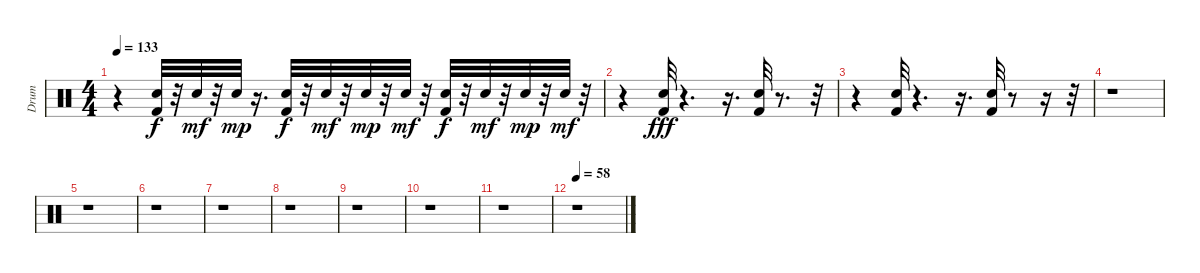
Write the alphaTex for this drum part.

\track ("Drum" "Drum") {instrument percussion}
\staff {score}
\articulation defaults
\ts (4 4)
\tempo 133
\clef neutral
\ks c
r.4{dy fff} ("Kick (hit) 2" "Electric Snare (hit)").32{dy f} r.32 "Electric Snare (hit)".32{dy mf} r.32 "Electric Snare (hit)".32{dy mp} r.16{d} ("Kick (hit) 2" "Electric Snare (hit)").32{dy f} r.32 "Electric Snare (hit)".32{dy mf} r.32 "Electric Snare (hit)".32{dy mp} r.32 "Electric Snare (hit)".32{dy mf} r.32 ("Kick (hit) 2" "Electric Snare (hit)").32{dy f} r.32 "Electric Snare (hit)".32{dy mf} r.32 "Electric Snare (hit)".32{dy mp} r.32 "Electric Snare (hit)".32{dy mf} r.32 |
r.4 ("Electric Snare (hit)" "Kick (hit) 2").32{dy fff} r.4{d} r.16{d} ("Electric Snare (hit)" "Kick (hit) 2").32 r.8{d} r.32 |
r.4 ("Electric Snare (hit)" "Kick (hit) 2").32 r.4{d} r.16{d} ("Electric Snare (hit)" "Kick (hit) 2").32 r.8 r.16 r.32 |
r.1 |
r.1 |
r.1 |
r.1 |
r.1 |
r.1 |
r.1 |
r.1 |
\tempo 58
r.1
